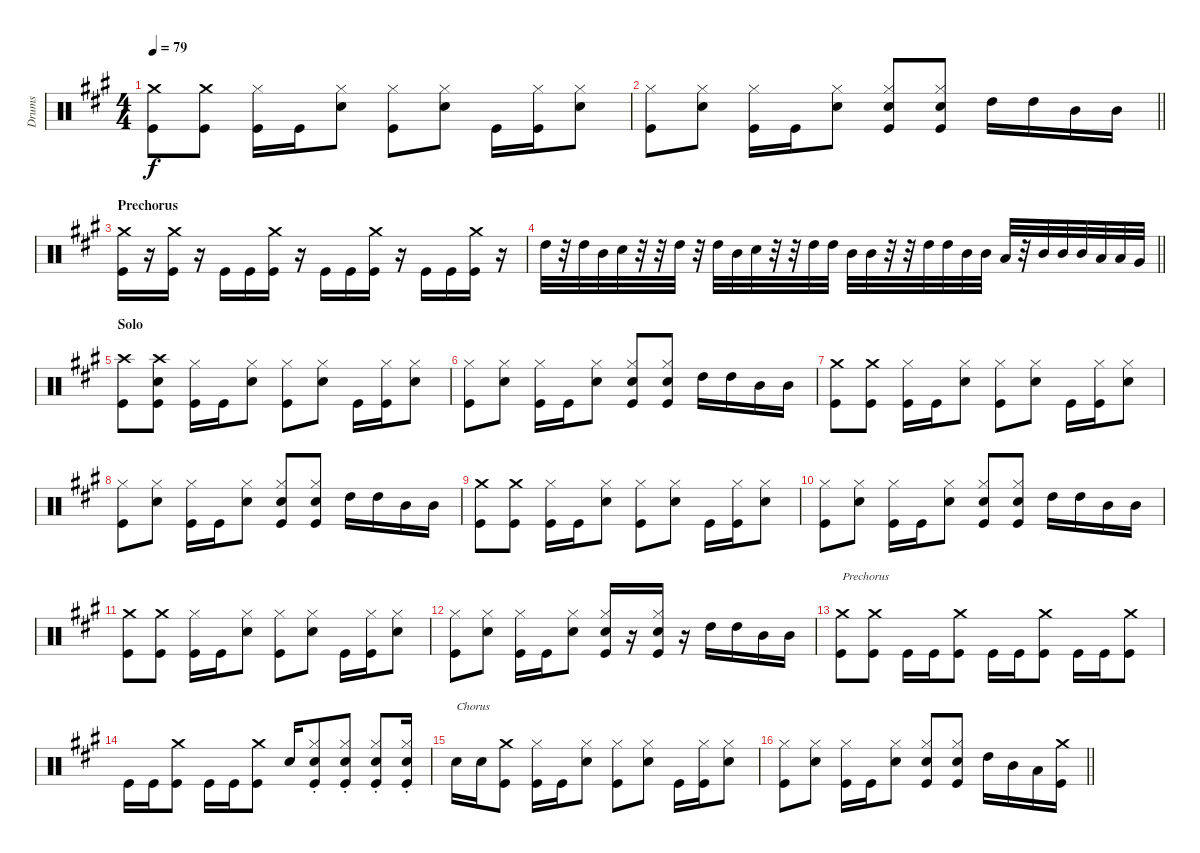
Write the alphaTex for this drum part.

\track ("Drums" "Drums") {instrument percussion}
\staff {score}
\articulation defaults
\ts (4 4)
\tempo 79
\clef neutral
\ks a
("Crash medium (hit)" "Kick (hit)").8{dy f} ("Crash medium (hit)" "Kick (hit)").8 ("Hi-Hat (closed)" "Kick (hit)").16 "Kick (hit)".16 ("Hi-Hat (closed)" "Snare (hit) 2").8 ("Hi-Hat (closed)" "Kick (hit)").8 ("Hi-Hat (closed)" "Snare (hit) 2").8 "Kick (hit)".16 ("Hi-Hat (closed)" "Kick (hit)").16 ("Hi-Hat (closed)" "Snare (hit) 2").8 |
\barLineRight lightlight
("Hi-Hat (closed)" "Kick (hit)").8 ("Hi-Hat (closed)" "Snare (hit) 2").8 ("Hi-Hat (closed)" "Kick (hit)").16 "Kick (hit)".16 ("Hi-Hat (closed)" "Snare (hit) 2").8 ("Hi-Hat (closed)" "Snare (hit) 2" "Kick (hit)").8 ("Hi-Hat (closed)" "Snare (hit) 2" "Kick (hit)").8 "High Tom (hit)".16 "High Tom (hit)".16 "Mid Tom (hit)".16 "Mid Tom (hit)".16 |
\section ("" "Prechorus")
("Crash medium (hit)" "Kick (hit)").16 r.16 ("Crash medium (hit)" "Kick (hit)").16 r.16 "Kick (hit)".16 "Kick (hit)".16 ("Crash medium (hit)" "Kick (hit)").16 r.16 "Kick (hit)".16 "Kick (hit)".16 ("Crash medium (hit)" "Kick (hit)").16 r.16 "Kick (hit)".16 "Kick (hit)".16 ("Crash medium (hit)" "Kick (hit)").16 r.16 |
\barLineRight lightlight "High Tom (hit)".32
r.32 "High Tom (hit)".32 "Mid Tom (hit)".32 "Snare (hit) 2".32 r.32 r.32 "High Tom (hit)".32 r.32 "High Tom (hit)".32 "Mid Tom (hit)".32 "Snare (hit) 2".32 r.32 r.32 "High Tom (hit)".32 "High Tom (hit)".32 "Mid Tom (hit)".32 "Mid Tom (hit)".32 r.32 r.32 "High Tom (hit)".32 "High Tom (hit)".32 "Mid Tom (hit)".32 "Mid Tom (hit)".32 "Low Tom (hit)".32 r.32 "Mid Tom (hit)".32 "Mid Tom (hit)".32 "Mid Tom (hit)".32 "Low Tom (hit)".32 "Low Tom (hit)".32 "Very Low Tom (hit)".32 |
\section ("" "Solo")
("Crash high (hit)" "Kick (hit)").8 ("Crash high (hit)" "Snare (hit) 2" "Kick (hit)").8 ("Hi-Hat (closed)" "Kick (hit)").16 "Kick (hit)".16 ("Hi-Hat (closed)" "Snare (hit) 2").8 ("Hi-Hat (closed)" "Kick (hit)").8 ("Hi-Hat (closed)" "Snare (hit) 2").8 "Kick (hit)".16 ("Hi-Hat (closed)" "Kick (hit)").16 ("Hi-Hat (closed)" "Snare (hit) 2").8 |
("Hi-Hat (closed)" "Kick (hit)").8 ("Hi-Hat (closed)" "Snare (hit) 2").8 ("Hi-Hat (closed)" "Kick (hit)").16 "Kick (hit)".16 ("Hi-Hat (closed)" "Snare (hit) 2").8 ("Hi-Hat (closed)" "Snare (hit) 2" "Kick (hit)").8 ("Hi-Hat (closed)" "Snare (hit) 2" "Kick (hit)").8 "High Tom (hit)".16 "High Tom (hit)".16 "Mid Tom (hit)".16 "Mid Tom (hit)".16 |
("Crash medium (hit)" "Kick (hit)").8 ("Crash medium (hit)" "Kick (hit)").8 ("Hi-Hat (closed)" "Kick (hit)").16 "Kick (hit)".16 ("Hi-Hat (closed)" "Snare (hit) 2").8 ("Hi-Hat (closed)" "Kick (hit)").8 ("Hi-Hat (closed)" "Snare (hit) 2").8 "Kick (hit)".16 ("Hi-Hat (closed)" "Kick (hit)").16 ("Hi-Hat (closed)" "Snare (hit) 2").8 |
("Hi-Hat (closed)" "Kick (hit)").8 ("Hi-Hat (closed)" "Snare (hit) 2").8 ("Hi-Hat (closed)" "Kick (hit)").16 "Kick (hit)".16 ("Hi-Hat (closed)" "Snare (hit) 2").8 ("Hi-Hat (closed)" "Snare (hit) 2" "Kick (hit)").8 ("Hi-Hat (closed)" "Snare (hit) 2" "Kick (hit)").8 "High Tom (hit)".16 "High Tom (hit)".16 "Mid Tom (hit)".16 "Mid Tom (hit)".16 |
("Crash medium (hit)" "Kick (hit)").8 ("Crash medium (hit)" "Kick (hit)").8 ("Hi-Hat (closed)" "Kick (hit)").16 "Kick (hit)".16 ("Hi-Hat (closed)" "Snare (hit) 2").8 ("Hi-Hat (closed)" "Kick (hit)").8 ("Hi-Hat (closed)" "Snare (hit) 2").8 "Kick (hit)".16 ("Hi-Hat (closed)" "Kick (hit)").16 ("Hi-Hat (closed)" "Snare (hit) 2").8 |
("Hi-Hat (closed)" "Kick (hit)").8 ("Hi-Hat (closed)" "Snare (hit) 2").8 ("Hi-Hat (closed)" "Kick (hit)").16 "Kick (hit)".16 ("Hi-Hat (closed)" "Snare (hit) 2").8 ("Hi-Hat (closed)" "Snare (hit) 2" "Kick (hit)").8 ("Hi-Hat (closed)" "Snare (hit) 2" "Kick (hit)").8 "High Tom (hit)".16 "High Tom (hit)".16 "Mid Tom (hit)".16 "Mid Tom (hit)".16 |
("Crash medium (hit)" "Kick (hit)").8 ("Crash medium (hit)" "Kick (hit)").8 ("Hi-Hat (closed)" "Kick (hit)").16 "Kick (hit)".16 ("Hi-Hat (closed)" "Snare (hit) 2").8 ("Hi-Hat (closed)" "Kick (hit)").8 ("Hi-Hat (closed)" "Snare (hit) 2").8 "Kick (hit)".16 ("Hi-Hat (closed)" "Kick (hit)").16 ("Hi-Hat (closed)" "Snare (hit) 2").8 |
("Hi-Hat (closed)" "Kick (hit)").8 ("Hi-Hat (closed)" "Snare (hit) 2").8 ("Hi-Hat (closed)" "Kick (hit)").16 "Kick (hit)".16 ("Hi-Hat (closed)" "Snare (hit) 2").8 ("Hi-Hat (closed)" "Snare (hit) 2" "Kick (hit)").16 r.16 ("Hi-Hat (closed)" "Snare (hit) 2" "Kick (hit)").16 r.16 "High Tom (hit)".16 "High Tom (hit)".16 "Mid Tom (hit)".16 "Mid Tom (hit)".16 |
("Crash medium (hit)" "Kick (hit)").8{txt "Prechorus"} ("Crash medium (hit)" "Kick (hit)").8 "Kick (hit)".16 "Kick (hit)".16 ("Crash medium (hit)" "Kick (hit)").8 "Kick (hit)".16 "Kick (hit)".16 ("Crash medium (hit)" "Kick (hit)").8 "Kick (hit)".16 "Kick (hit)".16 ("Crash medium (hit)" "Kick (hit)").8 |
"Kick (hit)".16 "Kick (hit)".16 ("Crash medium (hit)" "Kick (hit)").8 "Kick (hit)".16 "Kick (hit)".16 ("Crash medium (hit)" "Kick (hit)").8 "Snare (hit) 2".16 ("Hi-Hat (closed)"{st} "Snare (hit) 2"{st} "Kick (hit)"{st}).8 ("Hi-Hat (closed)"{st} "Snare (hit) 2"{st} "Kick (hit)"{st}).8 ("Hi-Hat (closed)"{st} "Snare (hit) 2"{st} "Kick (hit)"{st}).8 ("Hi-Hat (closed)"{st} "Snare (hit) 2"{st} "Kick (hit)"{st}).16 |
"Snare (hit) 2".16{txt "Chorus"} "Snare (hit) 2".16 ("Crash medium (hit)" "Kick (hit)").8 ("Hi-Hat (closed)" "Kick (hit)").16 "Kick (hit)".16 ("Hi-Hat (closed)" "Snare (hit) 2").8 ("Hi-Hat (closed)" "Kick (hit)").8 ("Hi-Hat (closed)" "Snare (hit) 2").8 "Kick (hit)".16 ("Hi-Hat (closed)" "Kick (hit)").16 ("Hi-Hat (closed)" "Snare (hit) 2").8 |
\barLineRight lightlight
("Hi-Hat (closed)" "Kick (hit)").8 ("Hi-Hat (closed)" "Snare (hit) 2").8 ("Hi-Hat (closed)" "Kick (hit)").16 "Kick (hit)".16 ("Hi-Hat (closed)" "Snare (hit) 2").8 ("Hi-Hat (closed)" "Snare (hit) 2" "Kick (hit)").8 ("Hi-Hat (closed)" "Snare (hit) 2" "Kick (hit)").8 "High Tom (hit)".16 "Mid Tom (hit)".16 "Low Tom (hit)".16 ("Crash medium (hit)" "Kick (hit)").16
